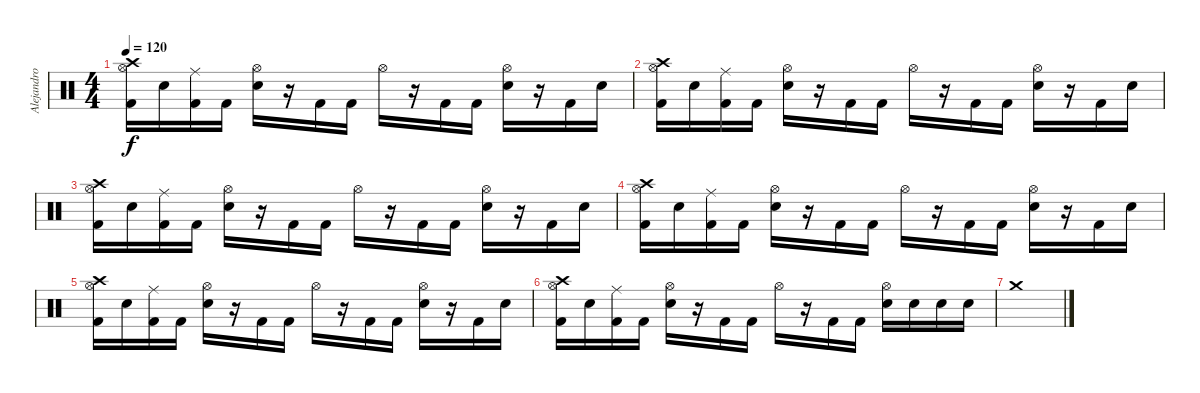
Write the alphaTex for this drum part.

\track ("Alejandro" "Alejandro") {instrument percussion}
\staff {score}
\articulation defaults
\ts (4 4)
\tempo 120
\clef neutral
\ks c
("Crash high (hit)" "Hi-Hat (open)" "Kick (hit) 2").16{dy f} "Electric Snare (hit)".16 ("Ride (middle)" "Kick (hit) 2").16 "Kick (hit) 2".16 ("Hi-Hat (open)" "Electric Snare (hit)").16 r.16 "Kick (hit) 2".16 "Kick (hit) 2".16 "Hi-Hat (open)".16 r.16 "Kick (hit) 2".16 "Kick (hit) 2".16 ("Hi-Hat (open)" "Electric Snare (hit)").16 r.16 "Kick (hit) 2".16 "Electric Snare (hit)".16 |
("Crash high (hit)" "Hi-Hat (open)" "Kick (hit) 2").16 "Electric Snare (hit)".16 ("Ride (middle)" "Kick (hit) 2").16 "Kick (hit) 2".16 ("Hi-Hat (open)" "Electric Snare (hit)").16 r.16 "Kick (hit) 2".16 "Kick (hit) 2".16 "Hi-Hat (open)".16 r.16 "Kick (hit) 2".16 "Kick (hit) 2".16 ("Hi-Hat (open)" "Electric Snare (hit)").16 r.16 "Kick (hit) 2".16 "Electric Snare (hit)".16 |
("Crash high (hit)" "Hi-Hat (open)" "Kick (hit) 2").16 "Electric Snare (hit)".16 ("Ride (middle)" "Kick (hit) 2").16 "Kick (hit) 2".16 ("Hi-Hat (open)" "Electric Snare (hit)").16 r.16 "Kick (hit) 2".16 "Kick (hit) 2".16 "Hi-Hat (open)".16 r.16 "Kick (hit) 2".16 "Kick (hit) 2".16 ("Hi-Hat (open)" "Electric Snare (hit)").16 r.16 "Kick (hit) 2".16 "Electric Snare (hit)".16 |
("Crash high (hit)" "Hi-Hat (open)" "Kick (hit) 2").16 "Electric Snare (hit)".16 ("Ride (middle)" "Kick (hit) 2").16 "Kick (hit) 2".16 ("Hi-Hat (open)" "Electric Snare (hit)").16 r.16 "Kick (hit) 2".16 "Kick (hit) 2".16 "Hi-Hat (open)".16 r.16 "Kick (hit) 2".16 "Kick (hit) 2".16 ("Hi-Hat (open)" "Electric Snare (hit)").16 r.16 "Kick (hit) 2".16 "Electric Snare (hit)".16 |
("Crash high (hit)" "Hi-Hat (open)" "Kick (hit) 2").16 "Electric Snare (hit)".16 ("Ride (middle)" "Kick (hit) 2").16 "Kick (hit) 2".16 ("Hi-Hat (open)" "Electric Snare (hit)").16 r.16 "Kick (hit) 2".16 "Kick (hit) 2".16 "Hi-Hat (open)".16 r.16 "Kick (hit) 2".16 "Kick (hit) 2".16 ("Hi-Hat (open)" "Electric Snare (hit)").16 r.16 "Kick (hit) 2".16 "Electric Snare (hit)".16 |
("Crash high (hit)" "Hi-Hat (open)" "Kick (hit) 2").16 "Electric Snare (hit)".16 ("Ride (middle)" "Kick (hit) 2").16 "Kick (hit) 2".16 ("Hi-Hat (open)" "Electric Snare (hit)").16 r.16 "Kick (hit) 2".16 "Kick (hit) 2".16 "Hi-Hat (open)".16 r.16 "Kick (hit) 2".16 "Kick (hit) 2".16 ("Hi-Hat (open)" "Electric Snare (hit)").16 "Electric Snare (hit)".16 "Electric Snare (hit)".16 "Electric Snare (hit)".16 |
"Crash medium (hit)".1
